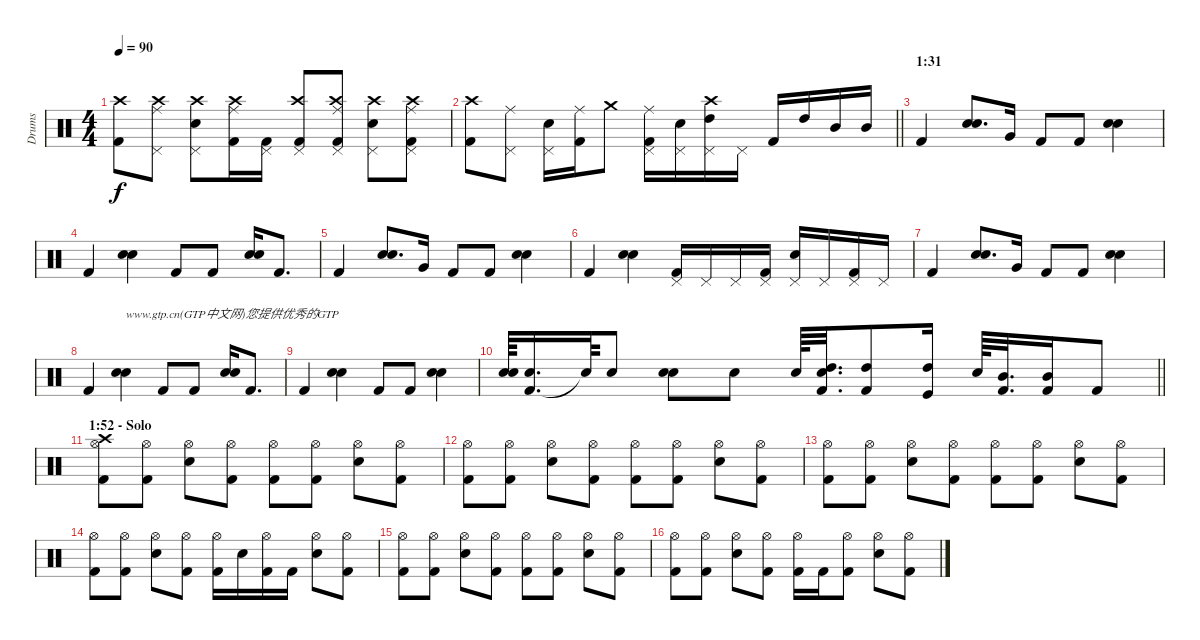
\track ("Drums" "Drums") {instrument percussion}
\staff {score}
\articulation defaults
\ts (4 4)
\tempo 90
\clef neutral
\ks c
("Kick (hit) 2" "Crash high (hit)").8{dy f} ("Pedal Hi-Hat (hit)" "Crash high (hit)" "Ride (middle)").8 ("Snare (hit) 2" "Pedal Hi-Hat (hit)" "Crash high (hit)").8 ("Kick (hit) 2" "Crash high (hit)" "Ride (middle)").16 ("Kick (hit) 2" "Pedal Hi-Hat (hit)").16 ("Kick (hit) 2" "Pedal Hi-Hat (hit)" "Crash high (hit)").8 ("Kick (hit) 2" "Pedal Hi-Hat (hit)" "Crash high (hit)" "Ride (middle)").8 ("Snare (hit) 2" "Pedal Hi-Hat (hit)" "Crash high (hit)").8 ("Kick (hit) 2" "Pedal Hi-Hat (hit)" "Crash high (hit)" "Ride (middle)").8 |
\barLineRight lightlight
("Kick (hit) 2" "Crash high (hit)").8 ("Pedal Hi-Hat (hit)" "Ride (middle)").8 ("Snare (hit) 2" "Pedal Hi-Hat (hit)").16 ("Kick (hit) 2" "Ride (middle)").16 "Crash medium (hit)".8 ("Kick (hit) 2" "Pedal Hi-Hat (hit)" "Ride (middle)").16 ("Snare (hit) 2" "Pedal Hi-Hat (hit)").16 ("High Tom (hit)" "Pedal Hi-Hat (hit)" "Crash high (hit)").16 "Pedal Hi-Hat (hit)".16 "Kick (hit) 2".16 "High Tom (hit)".16 "Mid Tom (hit)".16 "Mid Tom (hit)".16 |
\section ("" "1:31")
"Kick (hit) 2".4 ("Hand Clap (hit)" "Snare (hit) 2").8{d} "Very Low Tom (hit)".16 "Kick (hit) 2".8 "Kick (hit) 2".8 ("Hand Clap (hit)" "Snare (hit) 2").4 |
"Kick (hit) 2".4 ("Hand Clap (hit)" "Snare (hit) 2").4 "Kick (hit) 2".8 "Kick (hit) 2".8 ("Hand Clap (hit)" "Snare (hit) 2").16 "Kick (hit) 2".8{d} |
"Kick (hit) 2".4 ("Hand Clap (hit)" "Snare (hit) 2").8{d} "Very Low Tom (hit)".16 "Kick (hit) 2".8 "Kick (hit) 2".8 ("Hand Clap (hit)" "Snare (hit) 2").4 |
"Kick (hit) 2".4 ("Hand Clap (hit)" "Snare (hit) 2").4 ("Kick (hit) 2" "Pedal Hi-Hat (hit)").16 "Pedal Hi-Hat (hit)".16 "Pedal Hi-Hat (hit)".16 ("Kick (hit) 2" "Pedal Hi-Hat (hit)").16 ("Snare (hit) 2" "Pedal Hi-Hat (hit)").16 "Pedal Hi-Hat (hit)".16 ("Kick (hit) 2" "Pedal Hi-Hat (hit)").16 "Pedal Hi-Hat (hit)".16 |
"Kick (hit) 2".4 ("Hand Clap (hit)" "Snare (hit) 2").8{d} "Very Low Tom (hit)".16 "Kick (hit) 2".8 "Kick (hit) 2".8 ("Hand Clap (hit)" "Snare (hit) 2").4 |
"Kick (hit) 2".4 ("Hand Clap (hit)" "Snare (hit) 2").4{txt "www.gtp.cn(GTP中文网)您提供优秀的GTP"} "Kick (hit) 2".8 "Kick (hit) 2".8 ("Hand Clap (hit)" "Snare (hit) 2").16 "Kick (hit) 2".8{d} |
"Kick (hit) 2".4 ("Hand Clap (hit)" "Snare (hit) 2").4 "Kick (hit) 2".8 "Kick (hit) 2".8 ("Hand Clap (hit)" "Snare (hit) 2").4 |
\barLineRight lightlight
("Snare (hit) 2" "Hand Clap (hit)").64 ("Kick (hit) 2" "Snare (hit) 2").16{d} "Snare (hit)"{t}.64 "Snare (hit) 2".8 ("Hand Clap (hit)" "Snare (hit) 2").8 "Snare (hit) 2".8 "Snare (hit) 2".64 ("Kick (hit) 2" "Snare (hit) 2" "High Tom (hit)").32{d} ("Kick (hit) 2" "High Tom (hit)").8 ("Kick (hit)" "High Tom (hit)").16 "Snare (hit) 2".64 ("Kick (hit) 2" "Mid Tom (hit)").32{d} ("Kick (hit) 2" "Mid Tom (hit)").16 "Kick (hit) 2".8 |
\section ("" "1:52 - Solo")
("Kick (hit) 2" "Hi-Hat (open)" "Crash high (hit)").8 ("Kick (hit) 2" "Hi-Hat (open)").8 ("Electric Snare (hit)" "Hi-Hat (open)").8 ("Kick (hit) 2" "Hi-Hat (open)").8 ("Kick (hit) 2" "Hi-Hat (open)").8 ("Kick (hit) 2" "Hi-Hat (open)").8 ("Electric Snare (hit)" "Hi-Hat (open)").8 ("Kick (hit) 2" "Hi-Hat (open)").8 |
("Kick (hit) 2" "Hi-Hat (open)").8 ("Kick (hit) 2" "Hi-Hat (open)").8 ("Electric Snare (hit)" "Hi-Hat (open)").8 ("Kick (hit) 2" "Hi-Hat (open)").8 ("Kick (hit) 2" "Hi-Hat (open)").8 ("Kick (hit) 2" "Hi-Hat (open)").8 ("Electric Snare (hit)" "Hi-Hat (open)").8 ("Kick (hit) 2" "Hi-Hat (open)").8 |
("Kick (hit) 2" "Hi-Hat (open)").8 ("Kick (hit) 2" "Hi-Hat (open)").8 ("Electric Snare (hit)" "Hi-Hat (open)").8 ("Kick (hit) 2" "Hi-Hat (open)").8 ("Kick (hit) 2" "Hi-Hat (open)").8 ("Kick (hit) 2" "Hi-Hat (open)").8 ("Electric Snare (hit)" "Hi-Hat (open)").8 ("Kick (hit) 2" "Hi-Hat (open)").8 |
("Kick (hit) 2" "Hi-Hat (open)").8 ("Kick (hit) 2" "Hi-Hat (open)").8 ("Electric Snare (hit)" "Hi-Hat (open)").8 ("Kick (hit) 2" "Hi-Hat (open)").8 ("Kick (hit) 2" "Hi-Hat (open)").16 "Snare (hit) 2".16 ("Kick (hit) 2" "Hi-Hat (open)").16 "Kick (hit) 2".16 ("Electric Snare (hit)" "Hi-Hat (open)").8 ("Kick (hit) 2" "Hi-Hat (open)").8 |
("Kick (hit) 2" "Hi-Hat (open)").8 ("Kick (hit) 2" "Hi-Hat (open)").8 ("Electric Snare (hit)" "Hi-Hat (open)").8 ("Kick (hit) 2" "Hi-Hat (open)").8 ("Kick (hit) 2" "Hi-Hat (open)").8 ("Kick (hit) 2" "Hi-Hat (open)").8 ("Electric Snare (hit)" "Hi-Hat (open)").8 ("Kick (hit) 2" "Hi-Hat (open)").8 |
("Kick (hit) 2" "Hi-Hat (open)").8 ("Kick (hit) 2" "Hi-Hat (open)").8 ("Electric Snare (hit)" "Hi-Hat (open)").8 ("Kick (hit) 2" "Hi-Hat (open)").8 ("Kick (hit) 2" "Hi-Hat (open)").16 "Kick (hit) 2".16 ("Kick (hit) 2" "Hi-Hat (open)").8 ("Electric Snare (hit)" "Hi-Hat (open)").8 ("Kick (hit) 2" "Hi-Hat (open)").8
